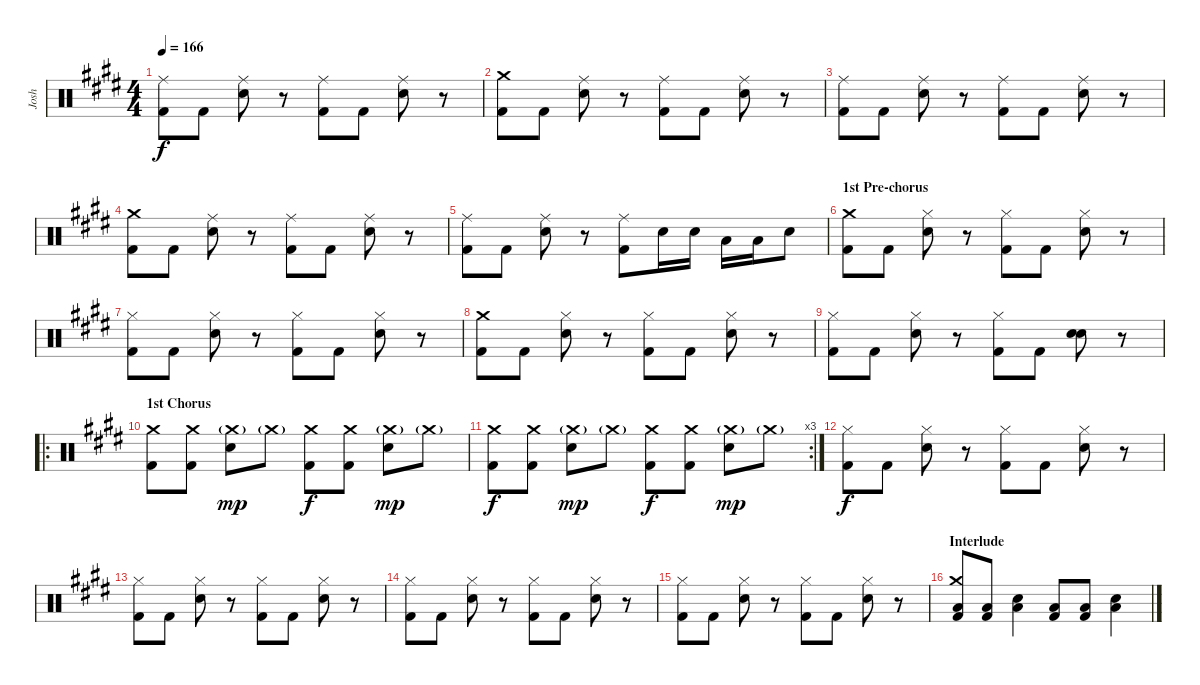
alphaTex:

\track ("Josh" "Josh") {instrument percussion}
\staff {score}
\articulation defaults
\ts (4 4)
\tempo 166
\clef neutral
\ks e
("Ride (middle)" "Kick (hit) 2").8{dy f} "Kick (hit) 2".8 ("Ride (middle)" "Electric Snare (hit)").8 r.8 ("Ride (middle)" "Kick (hit) 2").8 "Kick (hit) 2".8 ("Ride (middle)" "Electric Snare (hit)").8 r.8 |
("Crash medium (hit)" "Kick (hit) 2").8 "Kick (hit) 2".8 ("Ride (middle)" "Electric Snare (hit)").8 r.8 ("Ride (middle)" "Kick (hit) 2").8 "Kick (hit) 2".8 ("Ride (middle)" "Electric Snare (hit)").8 r.8 |
("Ride (middle)" "Kick (hit) 2").8 "Kick (hit) 2".8 ("Ride (middle)" "Electric Snare (hit)").8 r.8 ("Ride (middle)" "Kick (hit) 2").8 "Kick (hit) 2".8 ("Ride (middle)" "Electric Snare (hit)").8 r.8 |
("Crash medium (hit)" "Kick (hit) 2").8 "Kick (hit) 2".8 ("Ride (middle)" "Electric Snare (hit)").8 r.8 ("Ride (middle)" "Kick (hit) 2").8 "Kick (hit) 2".8 ("Ride (middle)" "Electric Snare (hit)").8 r.8 |
("Ride (middle)" "Kick (hit) 2").8 "Kick (hit) 2".8 ("Ride (middle)" "Electric Snare (hit)").8 r.8 ("Ride (middle)" "Kick (hit) 2").8 "Electric Snare (hit)".16 "Electric Snare (hit)".16 "Low Tom (hit)".16 "Low Tom (hit)".16 "Electric Snare (hit)".8 |
\section ("" "1st Pre-chorus")
("Crash medium (hit)" "Kick (hit) 2").8 "Kick (hit) 2".8 ("Hi-Hat (closed)" "Electric Snare (hit)").8 r.8 ("Hi-Hat (closed)" "Kick (hit) 2").8 "Kick (hit) 2".8 ("Hi-Hat (closed)" "Electric Snare (hit)").8 r.8 |
("Hi-Hat (closed)" "Kick (hit) 2").8 "Kick (hit) 2".8 ("Hi-Hat (closed)" "Electric Snare (hit)").8 r.8 ("Hi-Hat (closed)" "Kick (hit) 2").8 "Kick (hit) 2".8 ("Hi-Hat (closed)" "Electric Snare (hit)").8 r.8 |
("Crash medium (hit)" "Kick (hit) 2").8 "Kick (hit) 2".8 ("Hi-Hat (closed)" "Electric Snare (hit)").8 r.8 ("Hi-Hat (closed)" "Kick (hit) 2").8 "Kick (hit) 2".8 ("Hi-Hat (closed)" "Electric Snare (hit)").8 r.8 |
("Hi-Hat (closed)" "Kick (hit) 2").8 "Kick (hit) 2".8 ("Hi-Hat (closed)" "Electric Snare (hit)").8 r.8 ("Hi-Hat (closed)" "Kick (hit) 2").8 "Kick (hit) 2".8 ("Electric Snare (hit)" "Electric Snare (hit)").8{bd 240} r.8 |
\ro
\section ("" "1st Chorus")
("Crash medium (hit)" "Kick (hit) 2").8 ("Crash medium (hit)" "Kick (hit) 2").8 ("Crash medium (hit)"{g} "Electric Snare (hit)").8{dy mp} "Crash medium (hit)"{g}.8 ("Crash medium (hit)" "Kick (hit) 2").8{dy f} ("Crash medium (hit)" "Kick (hit) 2").8 ("Crash medium (hit)"{g} "Electric Snare (hit)").8{dy mp} "Crash medium (hit)"{g}.8 |
\rc 3
("Crash medium (hit)" "Kick (hit) 2").8{dy f} ("Crash medium (hit)" "Kick (hit) 2").8 ("Crash medium (hit)"{g} "Electric Snare (hit)").8{dy mp} "Crash medium (hit)"{g}.8 ("Crash medium (hit)" "Kick (hit) 2").8{dy f} ("Crash medium (hit)" "Kick (hit) 2").8 ("Crash medium (hit)"{g} "Electric Snare (hit)").8{dy mp} "Crash medium (hit)"{g}.8 |
("Hi-Hat (closed)" "Kick (hit) 2").8{dy f} "Kick (hit) 2".8 ("Hi-Hat (closed)" "Electric Snare (hit)").8 r.8 ("Hi-Hat (closed)" "Kick (hit) 2").8 "Kick (hit) 2".8 ("Hi-Hat (closed)" "Electric Snare (hit)").8 r.8 |
("Hi-Hat (closed)" "Kick (hit) 2").8 "Kick (hit) 2".8 ("Hi-Hat (closed)" "Electric Snare (hit)").8 r.8 ("Hi-Hat (closed)" "Kick (hit) 2").8 "Kick (hit) 2".8 ("Hi-Hat (closed)" "Electric Snare (hit)").8 r.8 |
("Hi-Hat (closed)" "Kick (hit) 2").8 "Kick (hit) 2".8 ("Hi-Hat (closed)" "Electric Snare (hit)").8 r.8 ("Hi-Hat (closed)" "Kick (hit) 2").8 "Kick (hit) 2".8 ("Hi-Hat (closed)" "Electric Snare (hit)").8 r.8 |
("Hi-Hat (closed)" "Kick (hit) 2").8 "Kick (hit) 2".8 ("Hi-Hat (closed)" "Electric Snare (hit)").8 r.8 ("Hi-Hat (closed)" "Kick (hit) 2").8 "Kick (hit) 2".8 ("Hi-Hat (closed)" "Electric Snare (hit)").8 r.8 |
\section ("" "Interlude")
("Crash medium (hit)" "Low Floor Tom (hit)" "Kick (hit) 2").8 ("Low Floor Tom (hit)" "Kick (hit) 2").8 ("Low Floor Tom (hit)" "Electric Snare (hit)").4 ("Low Floor Tom (hit)" "Kick (hit) 2").8 ("Low Floor Tom (hit)" "Kick (hit) 2").8 ("Low Floor Tom (hit)" "Electric Snare (hit)").4
